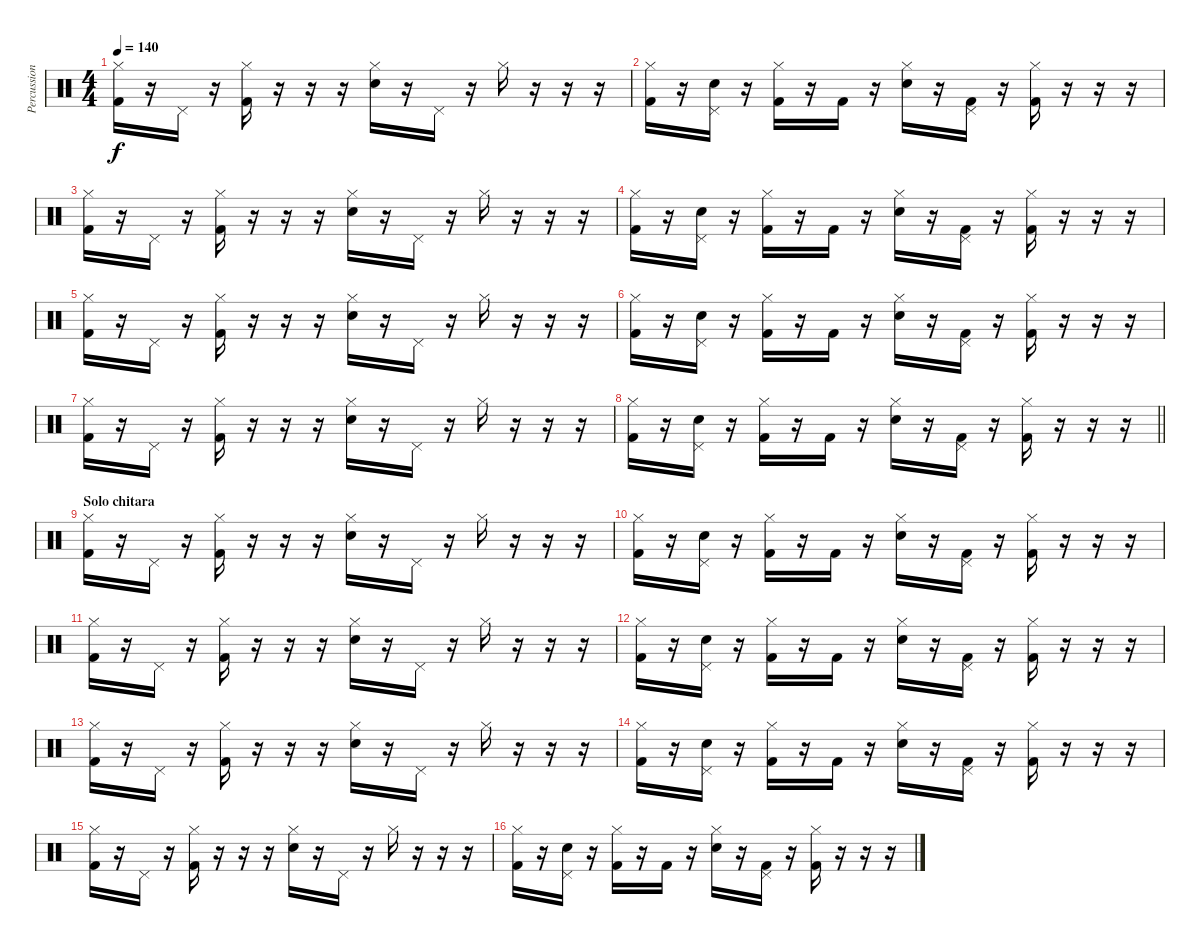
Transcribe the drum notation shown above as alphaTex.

\track ("Percussion" "Percussion") {instrument percussion}
\staff {score}
\articulation defaults
\ts (4 4)
\tempo 140
\clef neutral
\ks c
("Hi-Hat (closed)" "Kick (hit) 2").16{dy f} r.16 "Pedal Hi-Hat (hit)".16 r.16 ("Hi-Hat (closed)" "Kick (hit) 2").16 r.16 r.16 r.16 ("Hi-Hat (closed)" "Snare (hit) 2").16 r.16 "Pedal Hi-Hat (hit)".16 r.16 "Hi-Hat (closed)".16 r.16 r.16 r.16 |
("Hi-Hat (closed)" "Kick (hit) 2").16 r.16 ("Pedal Hi-Hat (hit)" "Snare (hit) 2").16 r.16 ("Hi-Hat (closed)" "Kick (hit) 2").16 r.16 "Kick (hit) 2".16 r.16 ("Hi-Hat (closed)" "Snare (hit) 2").16 r.16 ("Pedal Hi-Hat (hit)" "Kick (hit) 2").16 r.16 ("Hi-Hat (closed)" "Kick (hit) 2").16 r.16 r.16 r.16 |
("Hi-Hat (closed)" "Kick (hit) 2").16 r.16 "Pedal Hi-Hat (hit)".16 r.16 ("Hi-Hat (closed)" "Kick (hit) 2").16 r.16 r.16 r.16 ("Hi-Hat (closed)" "Snare (hit) 2").16 r.16 "Pedal Hi-Hat (hit)".16 r.16 "Hi-Hat (closed)".16 r.16 r.16 r.16 |
("Hi-Hat (closed)" "Kick (hit) 2").16 r.16 ("Pedal Hi-Hat (hit)" "Snare (hit) 2").16 r.16 ("Hi-Hat (closed)" "Kick (hit) 2").16 r.16 "Kick (hit) 2".16 r.16 ("Hi-Hat (closed)" "Snare (hit) 2").16 r.16 ("Pedal Hi-Hat (hit)" "Kick (hit) 2").16 r.16 ("Hi-Hat (closed)" "Kick (hit) 2").16 r.16 r.16 r.16 |
("Hi-Hat (closed)" "Kick (hit) 2").16 r.16 "Pedal Hi-Hat (hit)".16 r.16 ("Hi-Hat (closed)" "Kick (hit) 2").16 r.16 r.16 r.16 ("Hi-Hat (closed)" "Snare (hit) 2").16 r.16 "Pedal Hi-Hat (hit)".16 r.16 "Hi-Hat (closed)".16 r.16 r.16 r.16 |
("Hi-Hat (closed)" "Kick (hit) 2").16 r.16 ("Pedal Hi-Hat (hit)" "Snare (hit) 2").16 r.16 ("Hi-Hat (closed)" "Kick (hit) 2").16 r.16 "Kick (hit) 2".16 r.16 ("Hi-Hat (closed)" "Snare (hit) 2").16 r.16 ("Pedal Hi-Hat (hit)" "Kick (hit) 2").16 r.16 ("Hi-Hat (closed)" "Kick (hit) 2").16 r.16 r.16 r.16 |
("Hi-Hat (closed)" "Kick (hit) 2").16 r.16 "Pedal Hi-Hat (hit)".16 r.16 ("Hi-Hat (closed)" "Kick (hit) 2").16 r.16 r.16 r.16 ("Hi-Hat (closed)" "Snare (hit) 2").16 r.16 "Pedal Hi-Hat (hit)".16 r.16 "Hi-Hat (closed)".16 r.16 r.16 r.16 |
\barLineRight lightlight
("Hi-Hat (closed)" "Kick (hit) 2").16 r.16 ("Pedal Hi-Hat (hit)" "Snare (hit) 2").16 r.16 ("Hi-Hat (closed)" "Kick (hit) 2").16 r.16 "Kick (hit) 2".16 r.16 ("Hi-Hat (closed)" "Snare (hit) 2").16 r.16 ("Pedal Hi-Hat (hit)" "Kick (hit) 2").16 r.16 ("Hi-Hat (closed)" "Kick (hit) 2").16 r.16 r.16 r.16 |
\section ("" "Solo chitara")
("Hi-Hat (closed)" "Kick (hit) 2").16 r.16 "Pedal Hi-Hat (hit)".16 r.16 ("Hi-Hat (closed)" "Kick (hit) 2").16 r.16 r.16 r.16 ("Hi-Hat (closed)" "Snare (hit) 2").16 r.16 "Pedal Hi-Hat (hit)".16 r.16 "Hi-Hat (closed)".16 r.16 r.16 r.16 |
("Hi-Hat (closed)" "Kick (hit) 2").16 r.16 ("Pedal Hi-Hat (hit)" "Snare (hit) 2").16 r.16 ("Hi-Hat (closed)" "Kick (hit) 2").16 r.16 "Kick (hit) 2".16 r.16 ("Hi-Hat (closed)" "Snare (hit) 2").16 r.16 ("Pedal Hi-Hat (hit)" "Kick (hit) 2").16 r.16 ("Hi-Hat (closed)" "Kick (hit) 2").16 r.16 r.16 r.16 |
("Hi-Hat (closed)" "Kick (hit) 2").16 r.16 "Pedal Hi-Hat (hit)".16 r.16 ("Hi-Hat (closed)" "Kick (hit) 2").16 r.16 r.16 r.16 ("Hi-Hat (closed)" "Snare (hit) 2").16 r.16 "Pedal Hi-Hat (hit)".16 r.16 "Hi-Hat (closed)".16 r.16 r.16 r.16 |
("Hi-Hat (closed)" "Kick (hit) 2").16 r.16 ("Pedal Hi-Hat (hit)" "Snare (hit) 2").16 r.16 ("Hi-Hat (closed)" "Kick (hit) 2").16 r.16 "Kick (hit) 2".16 r.16 ("Hi-Hat (closed)" "Snare (hit) 2").16 r.16 ("Pedal Hi-Hat (hit)" "Kick (hit) 2").16 r.16 ("Hi-Hat (closed)" "Kick (hit) 2").16 r.16 r.16 r.16 |
("Hi-Hat (closed)" "Kick (hit) 2").16 r.16 "Pedal Hi-Hat (hit)".16 r.16 ("Hi-Hat (closed)" "Kick (hit) 2").16 r.16 r.16 r.16 ("Hi-Hat (closed)" "Snare (hit) 2").16 r.16 "Pedal Hi-Hat (hit)".16 r.16 "Hi-Hat (closed)".16 r.16 r.16 r.16 |
("Hi-Hat (closed)" "Kick (hit) 2").16 r.16 ("Pedal Hi-Hat (hit)" "Snare (hit) 2").16 r.16 ("Hi-Hat (closed)" "Kick (hit) 2").16 r.16 "Kick (hit) 2".16 r.16 ("Hi-Hat (closed)" "Snare (hit) 2").16 r.16 ("Pedal Hi-Hat (hit)" "Kick (hit) 2").16 r.16 ("Hi-Hat (closed)" "Kick (hit) 2").16 r.16 r.16 r.16 |
("Hi-Hat (closed)" "Kick (hit) 2").16 r.16 "Pedal Hi-Hat (hit)".16 r.16 ("Hi-Hat (closed)" "Kick (hit) 2").16 r.16 r.16 r.16 ("Hi-Hat (closed)" "Snare (hit) 2").16 r.16 "Pedal Hi-Hat (hit)".16 r.16 "Hi-Hat (closed)".16 r.16 r.16 r.16 |
("Hi-Hat (closed)" "Kick (hit) 2").16 r.16 ("Pedal Hi-Hat (hit)" "Snare (hit) 2").16 r.16 ("Hi-Hat (closed)" "Kick (hit) 2").16 r.16 "Kick (hit) 2".16 r.16 ("Hi-Hat (closed)" "Snare (hit) 2").16 r.16 ("Pedal Hi-Hat (hit)" "Kick (hit) 2").16 r.16 ("Hi-Hat (closed)" "Kick (hit) 2").16 r.16 r.16 r.16
